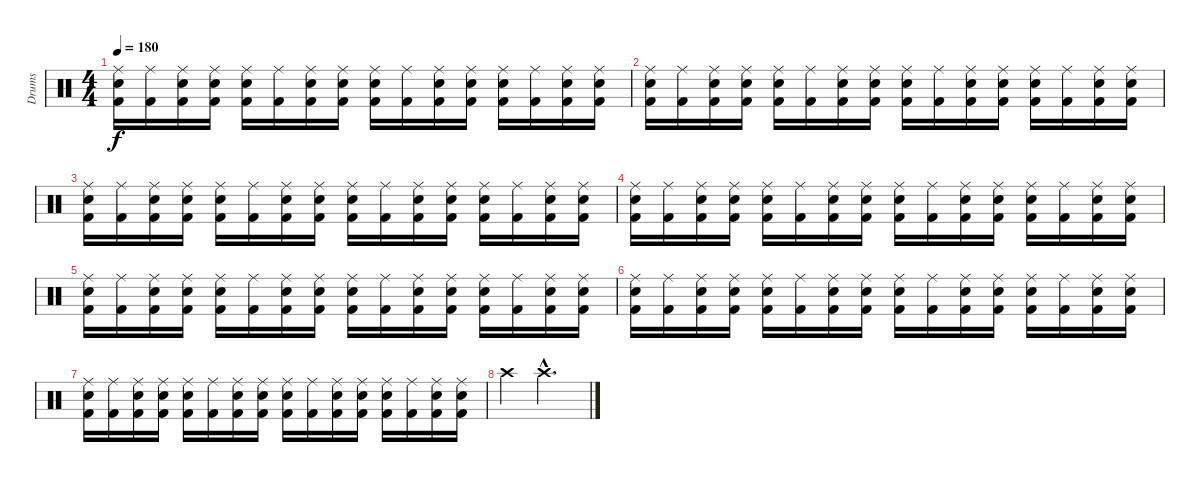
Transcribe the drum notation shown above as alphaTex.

\track ("Drums" "Drums") {instrument percussion}
\staff {score}
\articulation defaults
\ts (4 4)
\tempo 180
\clef neutral
\ks c
("Ride (middle)" "Snare (hit) 2" "Kick (hit) 2").16{dy f} ("Ride (middle)" "Kick (hit) 2").16 ("Ride (middle)" "Snare (hit) 2" "Kick (hit) 2").16 ("Ride (middle)" "Snare (hit) 2" "Kick (hit) 2").16 ("Ride (middle)" "Snare (hit) 2" "Kick (hit) 2").16 ("Ride (middle)" "Kick (hit) 2").16 ("Ride (middle)" "Snare (hit) 2" "Kick (hit) 2").16 ("Ride (middle)" "Snare (hit) 2" "Kick (hit) 2").16 ("Ride (middle)" "Snare (hit) 2" "Kick (hit) 2").16 ("Ride (middle)" "Kick (hit) 2").16 ("Ride (middle)" "Snare (hit) 2" "Kick (hit) 2").16 ("Ride (middle)" "Snare (hit) 2" "Kick (hit) 2").16 ("Ride (middle)" "Snare (hit) 2" "Kick (hit) 2").16 ("Ride (middle)" "Kick (hit) 2").16 ("Ride (middle)" "Snare (hit) 2" "Kick (hit) 2").16 ("Ride (middle)" "Snare (hit) 2" "Kick (hit) 2").16 |
("Ride (middle)" "Snare (hit) 2" "Kick (hit) 2").16 ("Ride (middle)" "Kick (hit) 2").16 ("Ride (middle)" "Snare (hit) 2" "Kick (hit) 2").16 ("Ride (middle)" "Snare (hit) 2" "Kick (hit) 2").16 ("Ride (middle)" "Snare (hit) 2" "Kick (hit) 2").16 ("Ride (middle)" "Kick (hit) 2").16 ("Ride (middle)" "Snare (hit) 2" "Kick (hit) 2").16 ("Ride (middle)" "Snare (hit) 2" "Kick (hit) 2").16 ("Ride (middle)" "Snare (hit) 2" "Kick (hit) 2").16 ("Ride (middle)" "Kick (hit) 2").16 ("Ride (middle)" "Snare (hit) 2" "Kick (hit) 2").16 ("Ride (middle)" "Snare (hit) 2" "Kick (hit) 2").16 ("Ride (middle)" "Snare (hit) 2" "Kick (hit) 2").16 ("Ride (middle)" "Kick (hit) 2").16 ("Ride (middle)" "Snare (hit) 2" "Kick (hit) 2").16 ("Ride (middle)" "Snare (hit) 2" "Kick (hit) 2").16 |
("Ride (middle)" "Snare (hit) 2" "Kick (hit) 2").16 ("Ride (middle)" "Kick (hit) 2").16 ("Ride (middle)" "Snare (hit) 2" "Kick (hit) 2").16 ("Ride (middle)" "Snare (hit) 2" "Kick (hit) 2").16 ("Ride (middle)" "Snare (hit) 2" "Kick (hit) 2").16 ("Ride (middle)" "Kick (hit) 2").16 ("Ride (middle)" "Snare (hit) 2" "Kick (hit) 2").16 ("Ride (middle)" "Snare (hit) 2" "Kick (hit) 2").16 ("Ride (middle)" "Snare (hit) 2" "Kick (hit) 2").16 ("Ride (middle)" "Kick (hit) 2").16 ("Ride (middle)" "Snare (hit) 2" "Kick (hit) 2").16 ("Ride (middle)" "Snare (hit) 2" "Kick (hit) 2").16 ("Ride (middle)" "Snare (hit) 2" "Kick (hit) 2").16 ("Ride (middle)" "Kick (hit) 2").16 ("Ride (middle)" "Snare (hit) 2" "Kick (hit) 2").16 ("Ride (middle)" "Snare (hit) 2" "Kick (hit) 2").16 |
("Ride (middle)" "Snare (hit) 2" "Kick (hit) 2").16 ("Ride (middle)" "Kick (hit) 2").16 ("Ride (middle)" "Snare (hit) 2" "Kick (hit) 2").16 ("Ride (middle)" "Snare (hit) 2" "Kick (hit) 2").16 ("Ride (middle)" "Snare (hit) 2" "Kick (hit) 2").16 ("Ride (middle)" "Kick (hit) 2").16 ("Ride (middle)" "Snare (hit) 2" "Kick (hit) 2").16 ("Ride (middle)" "Snare (hit) 2" "Kick (hit) 2").16 ("Ride (middle)" "Snare (hit) 2" "Kick (hit) 2").16 ("Ride (middle)" "Kick (hit) 2").16 ("Ride (middle)" "Snare (hit) 2" "Kick (hit) 2").16 ("Ride (middle)" "Snare (hit) 2" "Kick (hit) 2").16 ("Ride (middle)" "Snare (hit) 2" "Kick (hit) 2").16 ("Ride (middle)" "Kick (hit) 2").16 ("Ride (middle)" "Snare (hit) 2" "Kick (hit) 2").16 ("Ride (middle)" "Snare (hit) 2" "Kick (hit) 2").16 |
("Ride (middle)" "Snare (hit) 2" "Kick (hit) 2").16 ("Ride (middle)" "Kick (hit) 2").16 ("Ride (middle)" "Snare (hit) 2" "Kick (hit) 2").16 ("Ride (middle)" "Snare (hit) 2" "Kick (hit) 2").16 ("Ride (middle)" "Snare (hit) 2" "Kick (hit) 2").16 ("Ride (middle)" "Kick (hit) 2").16 ("Ride (middle)" "Snare (hit) 2" "Kick (hit) 2").16 ("Ride (middle)" "Snare (hit) 2" "Kick (hit) 2").16 ("Ride (middle)" "Snare (hit) 2" "Kick (hit) 2").16 ("Ride (middle)" "Kick (hit) 2").16 ("Ride (middle)" "Snare (hit) 2" "Kick (hit) 2").16 ("Ride (middle)" "Snare (hit) 2" "Kick (hit) 2").16 ("Ride (middle)" "Snare (hit) 2" "Kick (hit) 2").16 ("Ride (middle)" "Kick (hit) 2").16 ("Ride (middle)" "Snare (hit) 2" "Kick (hit) 2").16 ("Ride (middle)" "Snare (hit) 2" "Kick (hit) 2").16 |
("Ride (middle)" "Snare (hit) 2" "Kick (hit) 2").16 ("Ride (middle)" "Kick (hit) 2").16 ("Ride (middle)" "Snare (hit) 2" "Kick (hit) 2").16 ("Ride (middle)" "Snare (hit) 2" "Kick (hit) 2").16 ("Ride (middle)" "Snare (hit) 2" "Kick (hit) 2").16 ("Ride (middle)" "Kick (hit) 2").16 ("Ride (middle)" "Snare (hit) 2" "Kick (hit) 2").16 ("Ride (middle)" "Snare (hit) 2" "Kick (hit) 2").16 ("Ride (middle)" "Snare (hit) 2" "Kick (hit) 2").16 ("Ride (middle)" "Kick (hit) 2").16 ("Ride (middle)" "Snare (hit) 2" "Kick (hit) 2").16 ("Ride (middle)" "Snare (hit) 2" "Kick (hit) 2").16 ("Ride (middle)" "Snare (hit) 2" "Kick (hit) 2").16 ("Ride (middle)" "Kick (hit) 2").16 ("Ride (middle)" "Snare (hit) 2" "Kick (hit) 2").16 ("Ride (middle)" "Snare (hit) 2" "Kick (hit) 2").16 |
("Ride (middle)" "Snare (hit) 2" "Kick (hit) 2").16 ("Ride (middle)" "Kick (hit) 2").16 ("Ride (middle)" "Snare (hit) 2" "Kick (hit) 2").16 ("Ride (middle)" "Snare (hit) 2" "Kick (hit) 2").16 ("Ride (middle)" "Snare (hit) 2" "Kick (hit) 2").16 ("Ride (middle)" "Kick (hit) 2").16 ("Ride (middle)" "Snare (hit) 2" "Kick (hit) 2").16 ("Ride (middle)" "Snare (hit) 2" "Kick (hit) 2").16 ("Ride (middle)" "Snare (hit) 2" "Kick (hit) 2").16 ("Ride (middle)" "Kick (hit) 2").16 ("Ride (middle)" "Snare (hit) 2" "Kick (hit) 2").16 ("Ride (middle)" "Snare (hit) 2" "Kick (hit) 2").16 ("Ride (middle)" "Snare (hit) 2" "Kick (hit) 2").16 ("Ride (middle)" "Kick (hit) 2").16 ("Ride (middle)" "Snare (hit) 2" "Kick (hit) 2").16 ("Ride (middle)" "Snare (hit) 2" "Kick (hit) 2").16 |
"Crash high (hit)".4 "Crash high (hit)"{hac}.2{d}
